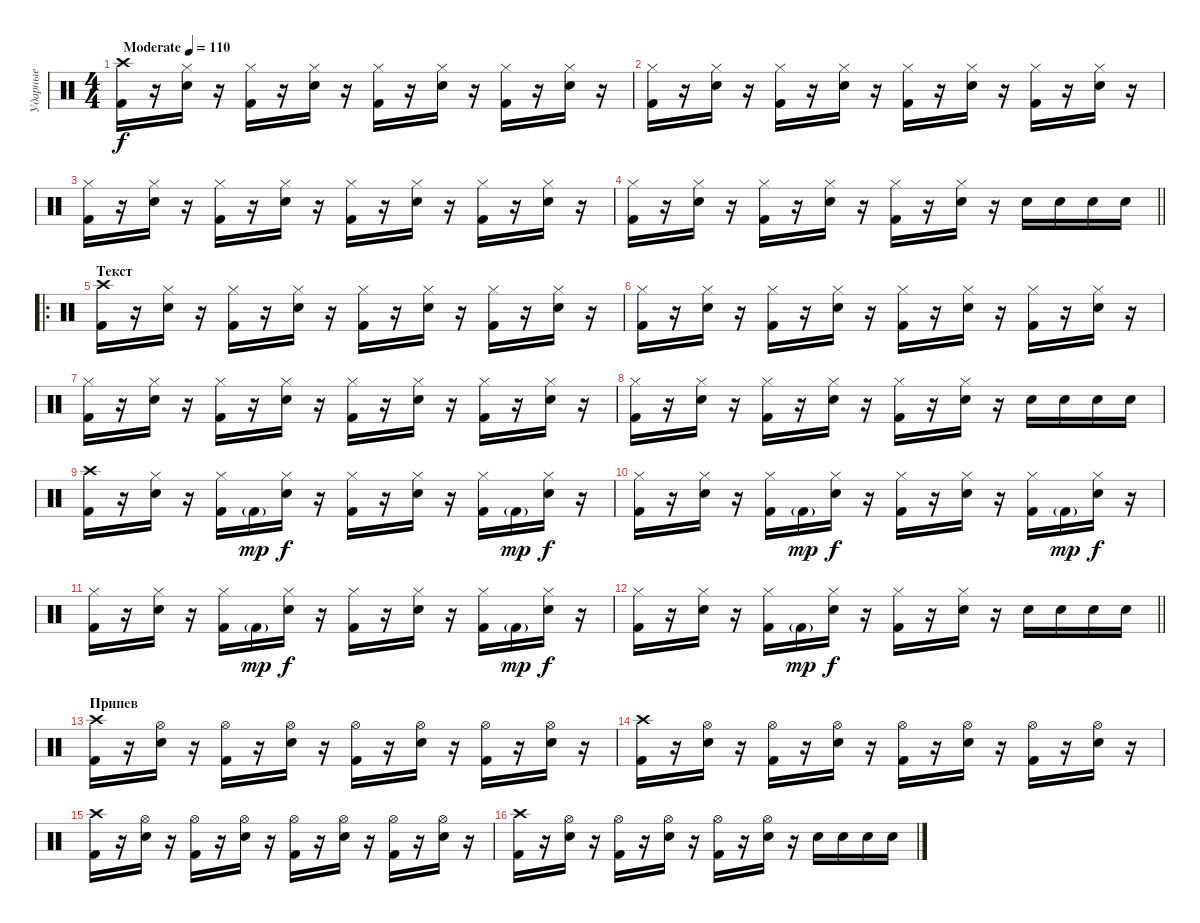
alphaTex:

\track ("Ударные" "Ударные") {instrument percussion}
\staff {score}
\articulation defaults
\ts (4 4)
\tempo (110 "Moderate")
\clef neutral
\ks c
("Crash high (hit)" "Kick (hit) 2").16{dy f} r.16 ("Hi-Hat (closed)" "Snare (hit) 2").16 r.16 ("Hi-Hat (closed)" "Kick (hit) 2").16 r.16 ("Hi-Hat (closed)" "Snare (hit) 2").16 r.16 ("Hi-Hat (closed)" "Kick (hit) 2").16 r.16 ("Hi-Hat (closed)" "Snare (hit) 2").16 r.16 ("Hi-Hat (closed)" "Kick (hit) 2").16 r.16 ("Hi-Hat (closed)" "Snare (hit) 2").16 r.16 |
("Hi-Hat (closed)" "Kick (hit) 2").16 r.16 ("Hi-Hat (closed)" "Snare (hit) 2").16 r.16 ("Hi-Hat (closed)" "Kick (hit) 2").16 r.16 ("Hi-Hat (closed)" "Snare (hit) 2").16 r.16 ("Hi-Hat (closed)" "Kick (hit) 2").16 r.16 ("Hi-Hat (closed)" "Snare (hit) 2").16 r.16 ("Hi-Hat (closed)" "Kick (hit) 2").16 r.16 ("Hi-Hat (closed)" "Snare (hit) 2").16 r.16 |
("Hi-Hat (closed)" "Kick (hit) 2").16 r.16 ("Hi-Hat (closed)" "Snare (hit) 2").16 r.16 ("Hi-Hat (closed)" "Kick (hit) 2").16 r.16 ("Hi-Hat (closed)" "Snare (hit) 2").16 r.16 ("Hi-Hat (closed)" "Kick (hit) 2").16 r.16 ("Hi-Hat (closed)" "Snare (hit) 2").16 r.16 ("Hi-Hat (closed)" "Kick (hit) 2").16 r.16 ("Hi-Hat (closed)" "Snare (hit) 2").16 r.16 |
\barLineRight lightlight
("Hi-Hat (closed)" "Kick (hit) 2").16 r.16 ("Hi-Hat (closed)" "Snare (hit) 2").16 r.16 ("Hi-Hat (closed)" "Kick (hit) 2").16 r.16 ("Hi-Hat (closed)" "Snare (hit) 2").16 r.16 ("Hi-Hat (closed)" "Kick (hit) 2").16 r.16 ("Hi-Hat (closed)" "Snare (hit) 2").16 r.16 "Snare (hit) 2".16 "Snare (hit) 2".16 "Snare (hit) 2".16 "Snare (hit) 2".16 |
\ro
\section ("" "Текст")
("Crash high (hit)" "Kick (hit) 2").16 r.16 ("Hi-Hat (closed)" "Snare (hit) 2").16 r.16 ("Hi-Hat (closed)" "Kick (hit) 2").16 r.16 ("Hi-Hat (closed)" "Snare (hit) 2").16 r.16 ("Hi-Hat (closed)" "Kick (hit) 2").16 r.16 ("Hi-Hat (closed)" "Snare (hit) 2").16 r.16 ("Hi-Hat (closed)" "Kick (hit) 2").16 r.16 ("Hi-Hat (closed)" "Snare (hit) 2").16 r.16 |
("Hi-Hat (closed)" "Kick (hit) 2").16 r.16 ("Hi-Hat (closed)" "Snare (hit) 2").16 r.16 ("Hi-Hat (closed)" "Kick (hit) 2").16 r.16 ("Hi-Hat (closed)" "Snare (hit) 2").16 r.16 ("Hi-Hat (closed)" "Kick (hit) 2").16 r.16 ("Hi-Hat (closed)" "Snare (hit) 2").16 r.16 ("Hi-Hat (closed)" "Kick (hit) 2").16 r.16 ("Hi-Hat (closed)" "Snare (hit) 2").16 r.16 |
("Hi-Hat (closed)" "Kick (hit) 2").16 r.16 ("Hi-Hat (closed)" "Snare (hit) 2").16 r.16 ("Hi-Hat (closed)" "Kick (hit) 2").16 r.16 ("Hi-Hat (closed)" "Snare (hit) 2").16 r.16 ("Hi-Hat (closed)" "Kick (hit) 2").16 r.16 ("Hi-Hat (closed)" "Snare (hit) 2").16 r.16 ("Hi-Hat (closed)" "Kick (hit) 2").16 r.16 ("Hi-Hat (closed)" "Snare (hit) 2").16 r.16 |
("Hi-Hat (closed)" "Kick (hit) 2").16 r.16 ("Hi-Hat (closed)" "Snare (hit) 2").16 r.16 ("Hi-Hat (closed)" "Kick (hit) 2").16 r.16 ("Hi-Hat (closed)" "Snare (hit) 2").16 r.16 ("Hi-Hat (closed)" "Kick (hit) 2").16 r.16 ("Hi-Hat (closed)" "Snare (hit) 2").16 r.16 "Snare (hit) 2".16 "Snare (hit) 2".16 "Snare (hit) 2".16 "Snare (hit) 2".16 |
("Crash high (hit)" "Kick (hit) 2").16 r.16 ("Hi-Hat (closed)" "Snare (hit) 2").16 r.16 ("Hi-Hat (closed)" "Kick (hit) 2").16 "Kick (hit) 2"{g}.16{dy mp} ("Hi-Hat (closed)" "Snare (hit) 2").16{dy f} r.16 ("Hi-Hat (closed)" "Kick (hit) 2").16 r.16 ("Hi-Hat (closed)" "Snare (hit) 2").16 r.16 ("Hi-Hat (closed)" "Kick (hit) 2").16 "Kick (hit) 2"{g}.16{dy mp} ("Hi-Hat (closed)" "Snare (hit) 2").16{dy f} r.16 |
("Hi-Hat (closed)" "Kick (hit) 2").16 r.16 ("Hi-Hat (closed)" "Snare (hit) 2").16 r.16 ("Hi-Hat (closed)" "Kick (hit) 2").16 "Kick (hit) 2"{g}.16{dy mp} ("Hi-Hat (closed)" "Snare (hit) 2").16{dy f} r.16 ("Hi-Hat (closed)" "Kick (hit) 2").16 r.16 ("Hi-Hat (closed)" "Snare (hit) 2").16 r.16 ("Hi-Hat (closed)" "Kick (hit) 2").16 "Kick (hit) 2"{g}.16{dy mp} ("Hi-Hat (closed)" "Snare (hit) 2").16{dy f} r.16 |
("Hi-Hat (closed)" "Kick (hit) 2").16 r.16 ("Hi-Hat (closed)" "Snare (hit) 2").16 r.16 ("Hi-Hat (closed)" "Kick (hit) 2").16 "Kick (hit) 2"{g}.16{dy mp} ("Hi-Hat (closed)" "Snare (hit) 2").16{dy f} r.16 ("Hi-Hat (closed)" "Kick (hit) 2").16 r.16 ("Hi-Hat (closed)" "Snare (hit) 2").16 r.16 ("Hi-Hat (closed)" "Kick (hit) 2").16 "Kick (hit) 2"{g}.16{dy mp} ("Hi-Hat (closed)" "Snare (hit) 2").16{dy f} r.16 |
\barLineRight lightlight
("Hi-Hat (closed)" "Kick (hit) 2").16 r.16 ("Hi-Hat (closed)" "Snare (hit) 2").16 r.16 ("Hi-Hat (closed)" "Kick (hit) 2").16 "Kick (hit) 2"{g}.16{dy mp} ("Hi-Hat (closed)" "Snare (hit) 2").16{dy f} r.16 ("Hi-Hat (closed)" "Kick (hit) 2").16 r.16 ("Hi-Hat (closed)" "Snare (hit) 2").16 r.16 "Snare (hit) 2".16 "Snare (hit) 2".16 "Snare (hit) 2".16 "Snare (hit) 2".16 |
\section ("" "Припев")
("Crash high (hit)" "Kick (hit) 2").16 r.16 ("Hi-Hat (open)" "Snare (hit) 2").16 r.16 ("Hi-Hat (open)" "Kick (hit) 2").16 r.16 ("Hi-Hat (open)" "Snare (hit) 2").16 r.16 ("Hi-Hat (open)" "Kick (hit) 2").16 r.16 ("Hi-Hat (open)" "Snare (hit) 2").16 r.16 ("Hi-Hat (open)" "Kick (hit) 2").16 r.16 ("Hi-Hat (open)" "Snare (hit) 2").16 r.16 |
("Crash high (hit)" "Kick (hit) 2").16 r.16 ("Hi-Hat (open)" "Snare (hit) 2").16 r.16 ("Hi-Hat (open)" "Kick (hit) 2").16 r.16 ("Hi-Hat (open)" "Snare (hit) 2").16 r.16 ("Hi-Hat (open)" "Kick (hit) 2").16 r.16 ("Hi-Hat (open)" "Snare (hit) 2").16 r.16 ("Hi-Hat (open)" "Kick (hit) 2").16 r.16 ("Hi-Hat (open)" "Snare (hit) 2").16 r.16 |
("Crash high (hit)" "Kick (hit) 2").16 r.16 ("Hi-Hat (open)" "Snare (hit) 2").16 r.16 ("Hi-Hat (open)" "Kick (hit) 2").16 r.16 ("Hi-Hat (open)" "Snare (hit) 2").16 r.16 ("Hi-Hat (open)" "Kick (hit) 2").16 r.16 ("Hi-Hat (open)" "Snare (hit) 2").16 r.16 ("Hi-Hat (open)" "Kick (hit) 2").16 r.16 ("Hi-Hat (open)" "Snare (hit) 2").16 r.16 |
("Crash high (hit)" "Kick (hit) 2").16 r.16 ("Hi-Hat (open)" "Snare (hit) 2").16 r.16 ("Hi-Hat (open)" "Kick (hit) 2").16 r.16 ("Hi-Hat (open)" "Snare (hit) 2").16 r.16 ("Hi-Hat (open)" "Kick (hit) 2").16 r.16 ("Hi-Hat (open)" "Snare (hit) 2").16 r.16 "Snare (hit) 2".16 "Snare (hit) 2".16 "Snare (hit) 2".16 "Snare (hit) 2".16
